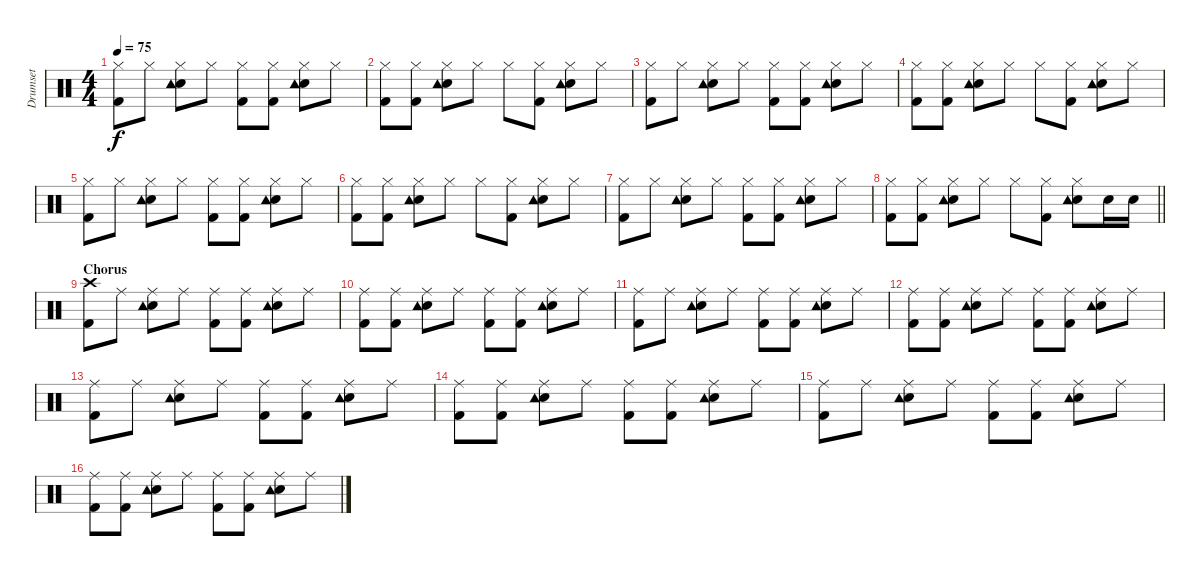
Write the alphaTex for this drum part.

\track ("Drumset" "Drumset") {instrument percussion}
\staff {score}
\articulation defaults
\ts (4 4)
\tempo 75
\clef neutral
\ks c
("Hi-Hat (closed)" "Kick (hit) 2").8{dy f} "Hi-Hat (closed)".8 ("Hi-Hat (closed)" "Electric Snare (hit)" "Tambourine (hit)").8 "Hi-Hat (closed)".8 ("Hi-Hat (closed)" "Kick (hit) 2").8 ("Hi-Hat (closed)" "Kick (hit) 2").8 ("Hi-Hat (closed)" "Electric Snare (hit)" "Tambourine (hit)").8 "Hi-Hat (closed)".8 |
("Hi-Hat (closed)" "Kick (hit) 2").8 ("Hi-Hat (closed)" "Kick (hit) 2").8 ("Hi-Hat (closed)" "Electric Snare (hit)" "Tambourine (hit)").8 "Hi-Hat (closed)".8 "Hi-Hat (closed)".8 ("Hi-Hat (closed)" "Kick (hit) 2").8 ("Hi-Hat (closed)" "Electric Snare (hit)" "Tambourine (hit)").8 "Hi-Hat (closed)".8 |
("Hi-Hat (closed)" "Kick (hit) 2").8 "Hi-Hat (closed)".8 ("Hi-Hat (closed)" "Electric Snare (hit)" "Tambourine (hit)").8 "Hi-Hat (closed)".8 ("Hi-Hat (closed)" "Kick (hit) 2").8 ("Hi-Hat (closed)" "Kick (hit) 2").8 ("Hi-Hat (closed)" "Electric Snare (hit)" "Tambourine (hit)").8 "Hi-Hat (closed)".8 |
("Hi-Hat (closed)" "Kick (hit) 2").8 ("Hi-Hat (closed)" "Kick (hit) 2").8 ("Hi-Hat (closed)" "Electric Snare (hit)" "Tambourine (hit)").8 "Hi-Hat (closed)".8 "Hi-Hat (closed)".8 ("Hi-Hat (closed)" "Kick (hit) 2").8 ("Hi-Hat (closed)" "Electric Snare (hit)" "Tambourine (hit)").8 "Hi-Hat (closed)".8 |
("Hi-Hat (closed)" "Kick (hit) 2").8 "Hi-Hat (closed)".8 ("Hi-Hat (closed)" "Electric Snare (hit)" "Tambourine (hit)").8 "Hi-Hat (closed)".8 ("Hi-Hat (closed)" "Kick (hit) 2").8 ("Hi-Hat (closed)" "Kick (hit) 2").8 ("Hi-Hat (closed)" "Electric Snare (hit)" "Tambourine (hit)").8 "Hi-Hat (closed)".8 |
("Hi-Hat (closed)" "Kick (hit) 2").8 ("Hi-Hat (closed)" "Kick (hit) 2").8 ("Hi-Hat (closed)" "Electric Snare (hit)" "Tambourine (hit)").8 "Hi-Hat (closed)".8 "Hi-Hat (closed)".8 ("Hi-Hat (closed)" "Kick (hit) 2").8 ("Hi-Hat (closed)" "Electric Snare (hit)" "Tambourine (hit)").8 "Hi-Hat (closed)".8 |
("Hi-Hat (closed)" "Kick (hit) 2").8 "Hi-Hat (closed)".8 ("Hi-Hat (closed)" "Electric Snare (hit)" "Tambourine (hit)").8 "Hi-Hat (closed)".8 ("Hi-Hat (closed)" "Kick (hit) 2").8 ("Hi-Hat (closed)" "Kick (hit) 2").8 ("Hi-Hat (closed)" "Electric Snare (hit)" "Tambourine (hit)").8 "Hi-Hat (closed)".8 |
\barLineRight lightlight
("Hi-Hat (closed)" "Kick (hit) 2").8 ("Hi-Hat (closed)" "Kick (hit) 2").8 ("Hi-Hat (closed)" "Electric Snare (hit)" "Tambourine (hit)").8 "Hi-Hat (closed)".8 "Hi-Hat (closed)".8 ("Hi-Hat (closed)" "Kick (hit) 2").8 ("Hi-Hat (closed)" "Electric Snare (hit)" "Tambourine (hit)").8 "Electric Snare (hit)".16 "Electric Snare (hit)".16 |
\section ("" "Chorus")
("Crash high (hit)" "Kick (hit) 2").8 "Ride (middle)".8 ("Ride (middle)" "Electric Snare (hit)" "Tambourine (hit)").8 "Ride (middle)".8 ("Ride (middle)" "Kick (hit) 2").8 ("Ride (middle)" "Kick (hit) 2").8 ("Ride (middle)" "Electric Snare (hit)" "Tambourine (hit)").8 "Ride (middle)".8 |
("Ride (middle)" "Kick (hit) 2").8 ("Ride (middle)" "Kick (hit) 2").8 ("Ride (middle)" "Electric Snare (hit)" "Tambourine (hit)").8 "Ride (middle)".8 ("Ride (middle)" "Kick (hit) 2").8 ("Ride (middle)" "Kick (hit) 2").8 ("Ride (middle)" "Electric Snare (hit)" "Tambourine (hit)").8 "Ride (middle)".8 |
("Ride (middle)" "Kick (hit) 2").8 "Ride (middle)".8 ("Ride (middle)" "Electric Snare (hit)" "Tambourine (hit)").8 "Ride (middle)".8 ("Ride (middle)" "Kick (hit) 2").8 ("Ride (middle)" "Kick (hit) 2").8 ("Ride (middle)" "Electric Snare (hit)" "Tambourine (hit)").8 "Ride (middle)".8 |
("Ride (middle)" "Kick (hit) 2").8 ("Ride (middle)" "Kick (hit) 2").8 ("Ride (middle)" "Electric Snare (hit)" "Tambourine (hit)").8 "Ride (middle)".8 ("Ride (middle)" "Kick (hit) 2").8 ("Ride (middle)" "Kick (hit) 2").8 ("Ride (middle)" "Electric Snare (hit)" "Tambourine (hit)").8 "Ride (middle)".8 |
("Ride (middle)" "Kick (hit) 2").8 "Ride (middle)".8 ("Ride (middle)" "Electric Snare (hit)" "Tambourine (hit)").8 "Ride (middle)".8 ("Ride (middle)" "Kick (hit) 2").8 ("Ride (middle)" "Kick (hit) 2").8 ("Ride (middle)" "Electric Snare (hit)" "Tambourine (hit)").8 "Ride (middle)".8 |
("Ride (middle)" "Kick (hit) 2").8 ("Ride (middle)" "Kick (hit) 2").8 ("Ride (middle)" "Electric Snare (hit)" "Tambourine (hit)").8 "Ride (middle)".8 ("Ride (middle)" "Kick (hit) 2").8 ("Ride (middle)" "Kick (hit) 2").8 ("Ride (middle)" "Electric Snare (hit)" "Tambourine (hit)").8 "Ride (middle)".8 |
("Ride (middle)" "Kick (hit) 2").8 "Ride (middle)".8 ("Ride (middle)" "Electric Snare (hit)" "Tambourine (hit)").8 "Ride (middle)".8 ("Ride (middle)" "Kick (hit) 2").8 ("Ride (middle)" "Kick (hit) 2").8 ("Ride (middle)" "Electric Snare (hit)" "Tambourine (hit)").8 "Ride (middle)".8 |
("Ride (middle)" "Kick (hit) 2").8 ("Ride (middle)" "Kick (hit) 2").8 ("Ride (middle)" "Electric Snare (hit)" "Tambourine (hit)").8 "Ride (middle)".8 ("Ride (middle)" "Kick (hit) 2").8 ("Ride (middle)" "Kick (hit) 2").8 ("Ride (middle)" "Electric Snare (hit)" "Tambourine (hit)").8 "Ride (middle)".8
